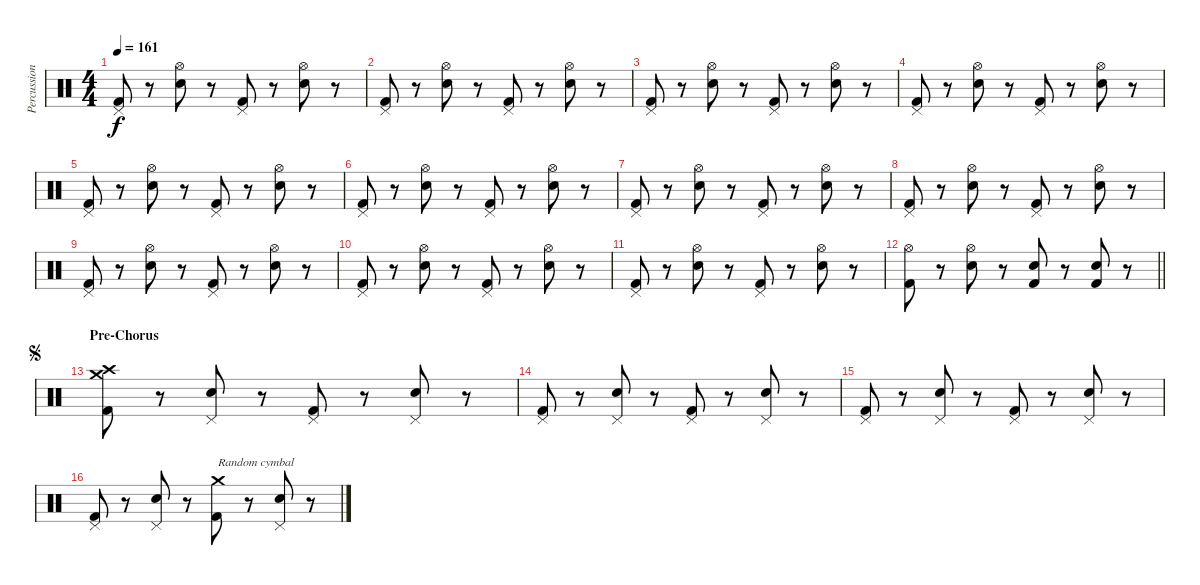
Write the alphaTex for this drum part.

\track ("Percussion" "Percussion") {instrument percussion}
\staff {score}
\articulation defaults
\ts (4 4)
\tempo 161
\clef neutral
\ks c
("Pedal Hi-Hat (hit)" "Kick (hit) 2").8{dy f} r.8 ("Hi-Hat (open)" "Electric Snare (hit)").8 r.8 ("Pedal Hi-Hat (hit)" "Kick (hit) 2").8 r.8 ("Hi-Hat (open)" "Electric Snare (hit)").8 r.8 |
("Pedal Hi-Hat (hit)" "Kick (hit) 2").8 r.8 ("Hi-Hat (open)" "Electric Snare (hit)").8 r.8 ("Pedal Hi-Hat (hit)" "Kick (hit) 2").8 r.8 ("Hi-Hat (open)" "Electric Snare (hit)").8 r.8 |
("Pedal Hi-Hat (hit)" "Kick (hit) 2").8 r.8 ("Hi-Hat (open)" "Electric Snare (hit)").8 r.8 ("Pedal Hi-Hat (hit)" "Kick (hit) 2").8 r.8 ("Hi-Hat (open)" "Electric Snare (hit)").8 r.8 |
("Pedal Hi-Hat (hit)" "Kick (hit) 2").8 r.8 ("Hi-Hat (open)" "Electric Snare (hit)").8 r.8 ("Pedal Hi-Hat (hit)" "Kick (hit) 2").8 r.8 ("Hi-Hat (open)" "Electric Snare (hit)").8 r.8 |
("Pedal Hi-Hat (hit)" "Kick (hit) 2").8 r.8 ("Hi-Hat (open)" "Electric Snare (hit)").8 r.8 ("Pedal Hi-Hat (hit)" "Kick (hit) 2").8 r.8 ("Hi-Hat (open)" "Electric Snare (hit)").8 r.8 |
("Pedal Hi-Hat (hit)" "Kick (hit) 2").8 r.8 ("Hi-Hat (open)" "Electric Snare (hit)").8 r.8 ("Pedal Hi-Hat (hit)" "Kick (hit) 2").8 r.8 ("Hi-Hat (open)" "Electric Snare (hit)").8 r.8 |
("Pedal Hi-Hat (hit)" "Kick (hit) 2").8 r.8 ("Hi-Hat (open)" "Electric Snare (hit)").8 r.8 ("Pedal Hi-Hat (hit)" "Kick (hit) 2").8 r.8 ("Hi-Hat (open)" "Electric Snare (hit)").8 r.8 |
("Pedal Hi-Hat (hit)" "Kick (hit) 2").8 r.8 ("Hi-Hat (open)" "Electric Snare (hit)").8 r.8 ("Pedal Hi-Hat (hit)" "Kick (hit) 2").8 r.8 ("Hi-Hat (open)" "Electric Snare (hit)").8 r.8 |
("Pedal Hi-Hat (hit)" "Kick (hit) 2").8 r.8 ("Hi-Hat (open)" "Electric Snare (hit)").8 r.8 ("Pedal Hi-Hat (hit)" "Kick (hit) 2").8 r.8 ("Hi-Hat (open)" "Electric Snare (hit)").8 r.8 |
("Pedal Hi-Hat (hit)" "Kick (hit) 2").8 r.8 ("Hi-Hat (open)" "Electric Snare (hit)").8 r.8 ("Pedal Hi-Hat (hit)" "Kick (hit) 2").8 r.8 ("Hi-Hat (open)" "Electric Snare (hit)").8 r.8 |
("Pedal Hi-Hat (hit)" "Kick (hit) 2").8 r.8 ("Hi-Hat (open)" "Electric Snare (hit)").8 r.8 ("Pedal Hi-Hat (hit)" "Kick (hit) 2").8 r.8 ("Hi-Hat (open)" "Electric Snare (hit)").8 r.8 |
\barLineRight lightlight
("Hi-Hat (open)" "Kick (hit) 2").8 r.8 ("Hi-Hat (open)" "Electric Snare (hit)").8 r.8 ("Electric Snare (hit)" "Kick (hit) 2").8 r.8 ("Electric Snare (hit)" "Kick (hit) 2").8 r.8 |
\section ("" "Pre-Chorus")
\jump segno
("Crash high (hit)" "Crash medium (hit)" "Kick (hit) 2").8 r.8 ("Pedal Hi-Hat (hit)" "Electric Snare (hit)").8 r.8 ("Pedal Hi-Hat (hit)" "Kick (hit) 2").8 r.8 ("Pedal Hi-Hat (hit)" "Electric Snare (hit)").8 r.8 |
("Pedal Hi-Hat (hit)" "Kick (hit) 2").8 r.8 ("Pedal Hi-Hat (hit)" "Electric Snare (hit)").8 r.8 ("Pedal Hi-Hat (hit)" "Kick (hit) 2").8 r.8 ("Pedal Hi-Hat (hit)" "Electric Snare (hit)").8 r.8 |
("Pedal Hi-Hat (hit)" "Kick (hit) 2").8 r.8 ("Pedal Hi-Hat (hit)" "Electric Snare (hit)").8 r.8 ("Pedal Hi-Hat (hit)" "Kick (hit) 2").8 r.8 ("Pedal Hi-Hat (hit)" "Electric Snare (hit)").8 r.8 |
("Pedal Hi-Hat (hit)" "Kick (hit) 2").8 r.8 ("Pedal Hi-Hat (hit)" "Electric Snare (hit)").8 r.8 ("Crash medium (hit)" "Kick (hit) 2").8{txt "Random cymbal"} r.8 ("Pedal Hi-Hat (hit)" "Electric Snare (hit)").8 r.8
